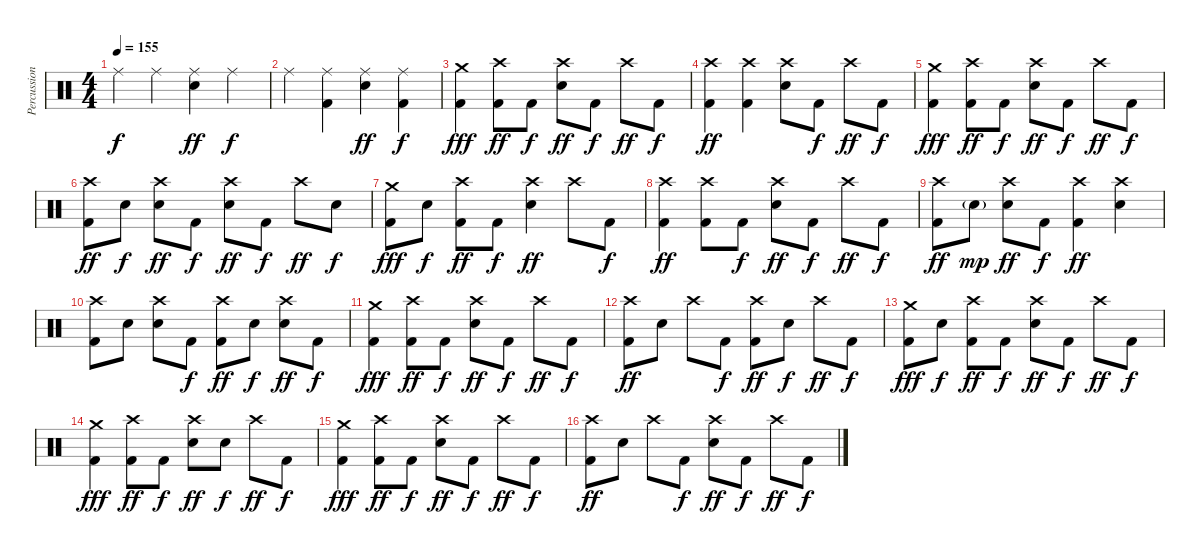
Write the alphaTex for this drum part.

\track ("Percussions" "Percussion") {instrument percussion}
\staff {score}
\articulation defaults
\ts (4 4)
\tempo 155
\clef neutral
\ks c "Ride (middle)".4{dy f} "Ride (middle)".4
("Ride (middle)" "Electric Snare (hit)").4{dy ff} "Ride (middle)".4{dy f} |
"Ride (middle)".4 ("Ride (middle)" "Kick (hit) 2").4 ("Ride (middle)" "Electric Snare (hit)").4{dy ff} ("Ride (middle)" "Kick (hit) 2").4{dy f} |
("Crash medium (hit)" "Kick (hit) 2").4{dy fff volume 14} ("Crash high (hit)" "Kick (hit) 2").8{dy ff} "Kick (hit) 2".8{dy f} ("Crash high (hit)" "Electric Snare (hit)").8{dy ff} "Kick (hit) 2".8{dy f} "Crash high (hit)".8{dy ff} "Kick (hit) 2".8{dy f} |
("Crash high (hit)" "Kick (hit) 2").4{dy ff} ("Crash high (hit)" "Kick (hit) 2").4 ("Crash high (hit)" "Electric Snare (hit)").8 "Kick (hit) 2".8{dy f} "Crash high (hit)".8{dy ff} "Kick (hit) 2".8{dy f} |
("Crash medium (hit)" "Kick (hit) 2").4{dy fff} ("Crash high (hit)" "Kick (hit) 2").8{dy ff} "Kick (hit) 2".8{dy f} ("Crash high (hit)" "Electric Snare (hit)").8{dy ff} "Kick (hit) 2".8{dy f} "Crash high (hit)".8{dy ff} "Kick (hit) 2".8{dy f} |
("Crash high (hit)" "Kick (hit) 2").8{dy ff} "Electric Snare (hit)".8{dy f} ("Crash high (hit)" "Electric Snare (hit)").8{dy ff} "Kick (hit) 2".8{dy f} ("Crash high (hit)" "Electric Snare (hit)").8{dy ff} "Kick (hit) 2".8{dy f} "Crash high (hit)".8{dy ff} "Electric Snare (hit)".8{dy f} |
("Crash medium (hit)" "Kick (hit) 2").8{dy fff} "Electric Snare (hit)".8{dy f} ("Crash high (hit)" "Kick (hit) 2").8{dy ff} "Kick (hit) 2".8{dy f} ("Crash high (hit)" "Electric Snare (hit)").4{dy ff} "Crash high (hit)".8 "Kick (hit) 2".8{dy f} |
("Crash high (hit)" "Kick (hit) 2").4{dy ff} ("Crash high (hit)" "Kick (hit) 2").8 "Kick (hit) 2".8{dy f} ("Crash high (hit)" "Electric Snare (hit)").8{dy ff} "Kick (hit) 2".8{dy f} "Crash high (hit)".8{dy ff} "Kick (hit) 2".8{dy f} |
("Crash high (hit)" "Kick (hit) 2").8{dy ff} "Electric Snare (hit)"{g}.8{dy mp} ("Crash high (hit)" "Electric Snare (hit)").8{dy ff} "Kick (hit) 2".8{dy f} ("Crash high (hit)" "Kick (hit) 2").4{dy ff} ("Crash high (hit)" "Electric Snare (hit)").4 |
("Crash high (hit)" "Kick (hit) 2").8 "Electric Snare (hit)".8 ("Crash high (hit)" "Electric Snare (hit)").8 "Kick (hit) 2".8{dy f} ("Crash high (hit)" "Kick (hit) 2").8{dy ff} "Electric Snare (hit)".8{dy f} ("Crash high (hit)" "Electric Snare (hit)").8{dy ff} "Kick (hit) 2".8{dy f} |
("Crash medium (hit)" "Kick (hit) 2").4{dy fff} ("Crash high (hit)" "Kick (hit) 2").8{dy ff} "Kick (hit) 2".8{dy f} ("Crash high (hit)" "Electric Snare (hit)").8{dy ff} "Kick (hit) 2".8{dy f} "Crash high (hit)".8{dy ff} "Kick (hit) 2".8{dy f} |
("Crash high (hit)" "Kick (hit) 2").8{dy ff} "Electric Snare (hit)".8 "Crash high (hit)".8 "Kick (hit) 2".8{dy f} ("Crash high (hit)" "Kick (hit) 2").8{dy ff} "Electric Snare (hit)".8{dy f} "Crash high (hit)".8{dy ff} "Kick (hit) 2".8{dy f} |
("Crash medium (hit)" "Kick (hit) 2").8{dy fff} "Electric Snare (hit)".8{dy f} ("Crash high (hit)" "Kick (hit) 2").8{dy ff} "Kick (hit) 2".8{dy f} ("Crash high (hit)" "Electric Snare (hit)").8{dy ff} "Kick (hit) 2".8{dy f} "Crash high (hit)".8{dy ff} "Kick (hit) 2".8{dy f} |
("Crash medium (hit)" "Kick (hit) 2").4{dy fff} ("Crash high (hit)" "Kick (hit) 2").8{dy ff} "Kick (hit) 2".8{dy f} ("Crash high (hit)" "Electric Snare (hit)").8{dy ff} "Electric Snare (hit)".8{dy f} "Crash high (hit)".8{dy ff} "Kick (hit) 2".8{dy f} |
("Crash medium (hit)" "Kick (hit) 2").4{dy fff} ("Crash high (hit)" "Kick (hit) 2").8{dy ff} "Kick (hit) 2".8{dy f} ("Crash high (hit)" "Electric Snare (hit)").8{dy ff} "Kick (hit) 2".8{dy f} "Crash high (hit)".8{dy ff} "Kick (hit) 2".8{dy f} |
("Crash high (hit)" "Kick (hit) 2").8{dy ff} "Electric Snare (hit)".8 "Crash high (hit)".8 "Kick (hit) 2".8{dy f} ("Crash high (hit)" "Electric Snare (hit)").8{dy ff} "Kick (hit) 2".8{dy f} "Crash high (hit)".8{dy ff} "Kick (hit) 2".8{dy f}
